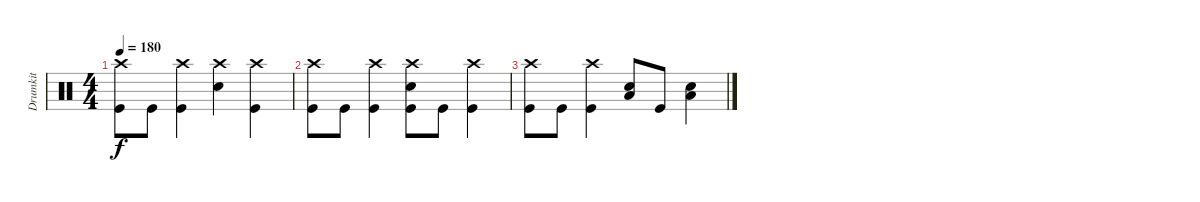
\track ("Drumkit" "Drumkit") {instrument percussion}
\staff {score}
\articulation defaults
\ts (4 4)
\tempo 180
\clef neutral
\ks c
("Crash high (hit)" "Kick (hit)").8{dy f} "Kick (hit)".8 ("Crash high (hit)" "Kick (hit)").4 ("Crash high (hit)" "Snare (hit) 2").4 ("Crash high (hit)" "Kick (hit)").4 |
("Crash high (hit)" "Kick (hit)").8 "Kick (hit)".8 ("Crash high (hit)" "Kick (hit)").4 ("Crash high (hit)" "Snare (hit) 2" "Kick (hit)").8 "Kick (hit)".8 ("Crash high (hit)" "Kick (hit)").4 |
("Crash high (hit)" "Kick (hit)").8 "Kick (hit)".8 ("Crash high (hit)" "Kick (hit)").4 ("Snare (hit) 2" "Low Floor Tom (hit)").8 "Kick (hit)".8 ("Snare (hit) 2" "Low Floor Tom (hit)").4
